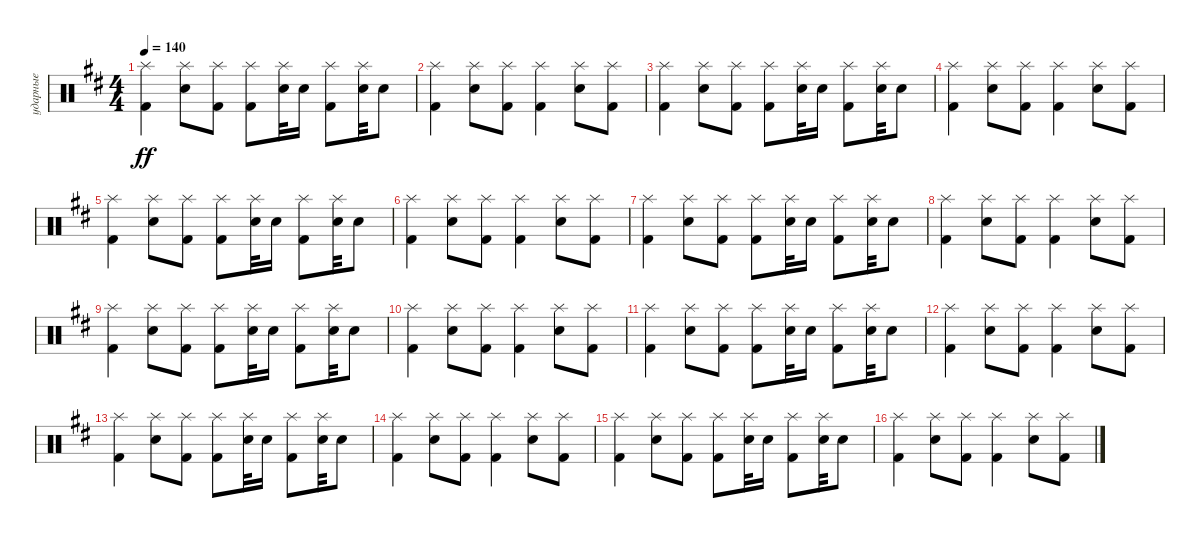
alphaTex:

\track ("ударные" "ударные") {instrument percussion}
\staff {score}
\articulation defaults
\ts (4 4)
\tempo 140
\clef neutral
\ks bminor
("Kick (hit) 2" "Splash (hit)").4{dy ff} ("Snare (hit) 2" "Splash (hit)").8 ("Kick (hit) 2" "Splash (hit)").8 ("Kick (hit) 2" "Splash (hit)").8 ("Snare (hit) 2" "Splash (hit)").32 "Snare (hit) 2".16{beam split} ("Kick (hit) 2" "Splash (hit)").8{beam merge} ("Snare (hit) 2" "Splash (hit)").32 "Snare (hit) 2".8 |
("Kick (hit) 2" "Splash (hit)").4 ("Snare (hit) 2" "Splash (hit)").8 ("Kick (hit) 2" "Splash (hit)").8 ("Kick (hit) 2" "Splash (hit)").4 ("Snare (hit) 2" "Splash (hit)").8 ("Kick (hit) 2" "Splash (hit)").8 |
("Kick (hit) 2" "Splash (hit)").4 ("Snare (hit) 2" "Splash (hit)").8 ("Kick (hit) 2" "Splash (hit)").8 ("Kick (hit) 2" "Splash (hit)").8 ("Snare (hit) 2" "Splash (hit)").32 "Snare (hit) 2".16{beam split} ("Kick (hit) 2" "Splash (hit)").8{beam merge} ("Snare (hit) 2" "Splash (hit)").32 "Snare (hit) 2".8 |
("Kick (hit) 2" "Splash (hit)").4 ("Snare (hit) 2" "Splash (hit)").8 ("Kick (hit) 2" "Splash (hit)").8 ("Kick (hit) 2" "Splash (hit)").4 ("Snare (hit) 2" "Splash (hit)").8 ("Kick (hit) 2" "Splash (hit)").8 |
("Kick (hit) 2" "Splash (hit)").4 ("Snare (hit) 2" "Splash (hit)").8 ("Kick (hit) 2" "Splash (hit)").8 ("Kick (hit) 2" "Splash (hit)").8 ("Snare (hit) 2" "Splash (hit)").32 "Snare (hit) 2".16{beam split} ("Kick (hit) 2" "Splash (hit)").8{beam merge} ("Snare (hit) 2" "Splash (hit)").32 "Snare (hit) 2".8 |
("Kick (hit) 2" "Splash (hit)").4 ("Snare (hit) 2" "Splash (hit)").8 ("Kick (hit) 2" "Splash (hit)").8 ("Kick (hit) 2" "Splash (hit)").4 ("Snare (hit) 2" "Splash (hit)").8 ("Kick (hit) 2" "Splash (hit)").8 |
("Kick (hit) 2" "Splash (hit)").4 ("Snare (hit) 2" "Splash (hit)").8 ("Kick (hit) 2" "Splash (hit)").8 ("Kick (hit) 2" "Splash (hit)").8 ("Snare (hit) 2" "Splash (hit)").32 "Snare (hit) 2".16{beam split} ("Kick (hit) 2" "Splash (hit)").8{beam merge} ("Snare (hit) 2" "Splash (hit)").32 "Snare (hit) 2".8 |
("Kick (hit) 2" "Splash (hit)").4 ("Snare (hit) 2" "Splash (hit)").8 ("Kick (hit) 2" "Splash (hit)").8 ("Kick (hit) 2" "Splash (hit)").4 ("Snare (hit) 2" "Splash (hit)").8 ("Kick (hit) 2" "Splash (hit)").8 |
("Kick (hit) 2" "Splash (hit)").4 ("Snare (hit) 2" "Splash (hit)").8 ("Kick (hit) 2" "Splash (hit)").8 ("Kick (hit) 2" "Splash (hit)").8 ("Snare (hit) 2" "Splash (hit)").32 "Snare (hit) 2".16{beam split} ("Kick (hit) 2" "Splash (hit)").8{beam merge} ("Snare (hit) 2" "Splash (hit)").32 "Snare (hit) 2".8 |
("Kick (hit) 2" "Splash (hit)").4 ("Snare (hit) 2" "Splash (hit)").8 ("Kick (hit) 2" "Splash (hit)").8 ("Kick (hit) 2" "Splash (hit)").4 ("Snare (hit) 2" "Splash (hit)").8 ("Kick (hit) 2" "Splash (hit)").8 |
("Kick (hit) 2" "Splash (hit)").4 ("Snare (hit) 2" "Splash (hit)").8 ("Kick (hit) 2" "Splash (hit)").8 ("Kick (hit) 2" "Splash (hit)").8 ("Snare (hit) 2" "Splash (hit)").32 "Snare (hit) 2".16{beam split} ("Kick (hit) 2" "Splash (hit)").8{beam merge} ("Snare (hit) 2" "Splash (hit)").32 "Snare (hit) 2".8 |
("Kick (hit) 2" "Splash (hit)").4 ("Snare (hit) 2" "Splash (hit)").8 ("Kick (hit) 2" "Splash (hit)").8 ("Kick (hit) 2" "Splash (hit)").4 ("Snare (hit) 2" "Splash (hit)").8 ("Kick (hit) 2" "Splash (hit)").8 |
("Kick (hit) 2" "Splash (hit)").4 ("Snare (hit) 2" "Splash (hit)").8 ("Kick (hit) 2" "Splash (hit)").8 ("Kick (hit) 2" "Splash (hit)").8 ("Snare (hit) 2" "Splash (hit)").32 "Snare (hit) 2".16{beam split} ("Kick (hit) 2" "Splash (hit)").8{beam merge} ("Snare (hit) 2" "Splash (hit)").32 "Snare (hit) 2".8 |
("Kick (hit) 2" "Splash (hit)").4 ("Snare (hit) 2" "Splash (hit)").8 ("Kick (hit) 2" "Splash (hit)").8 ("Kick (hit) 2" "Splash (hit)").4 ("Snare (hit) 2" "Splash (hit)").8 ("Kick (hit) 2" "Splash (hit)").8 |
("Kick (hit) 2" "Splash (hit)").4 ("Snare (hit) 2" "Splash (hit)").8 ("Kick (hit) 2" "Splash (hit)").8 ("Kick (hit) 2" "Splash (hit)").8 ("Snare (hit) 2" "Splash (hit)").32 "Snare (hit) 2".16{beam split} ("Kick (hit) 2" "Splash (hit)").8{beam merge} ("Snare (hit) 2" "Splash (hit)").32 "Snare (hit) 2".8 |
("Kick (hit) 2" "Splash (hit)").4 ("Snare (hit) 2" "Splash (hit)").8 ("Kick (hit) 2" "Splash (hit)").8 ("Kick (hit) 2" "Splash (hit)").4 ("Snare (hit) 2" "Splash (hit)").8 ("Kick (hit) 2" "Splash (hit)").8
